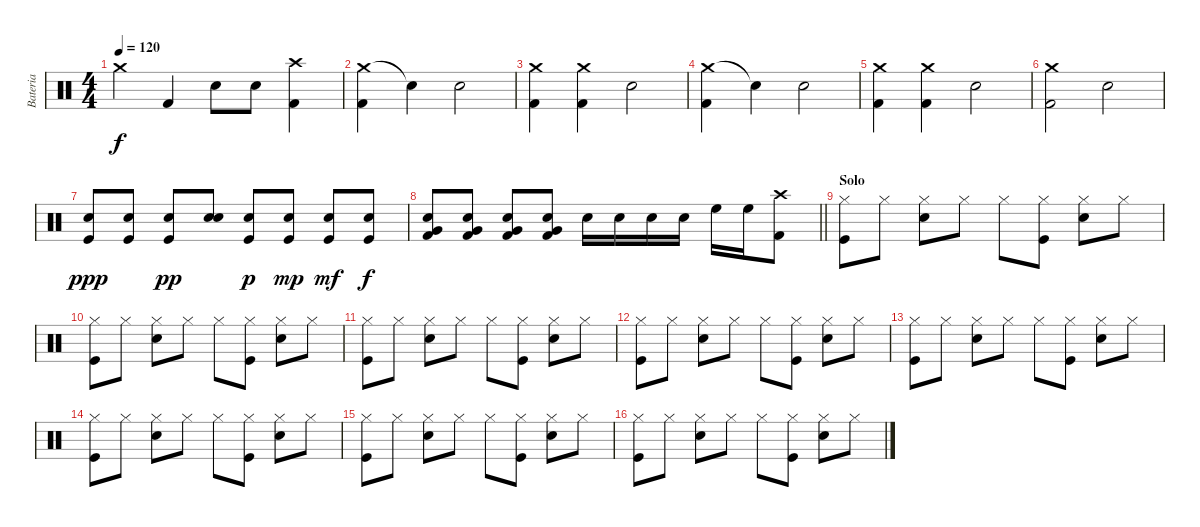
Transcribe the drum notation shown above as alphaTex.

\track ("Bateria" "Bateria") {instrument percussion}
\staff {score}
\articulation defaults
\ts (4 4)
\tempo 120
\clef neutral
\ks c "Crash medium (hit)".4{dy f} "Kick (hit) 2".4 "Snare (hit) 2".8 "Snare (hit) 2".8
("Crash high (hit)" "Kick (hit) 2").4 |
("Crash medium (hit)" "Kick (hit) 2").4 "Snare (hit)"{t}.4 "Snare (hit) 2".2 |
("Crash medium (hit)" "Kick (hit) 2").4 ("Crash medium (hit)" "Kick (hit) 2").4 "Snare (hit) 2".2 |
("Crash medium (hit)" "Kick (hit) 2").4 "Snare (hit)"{t}.4 "Snare (hit) 2".2 |
("Crash medium (hit)" "Kick (hit) 2").4 ("Crash medium (hit)" "Kick (hit) 2").4 "Snare (hit) 2".2 |
("Crash medium (hit)" "Kick (hit) 2").2 "Snare (hit) 2".2 |
("Kick (hit)" "Snare (hit) 2").8{dy ppp} ("Snare (hit) 2" "Kick (hit)").8 ("Snare (hit) 2" "Kick (hit)").8{dy pp} ("Snare (hit) 2" "Snare (hit) 2").8 ("Snare (hit) 2" "Kick (hit)").8{dy p} ("Snare (hit) 2" "Kick (hit)").8{dy mp} ("Snare (hit) 2" "Kick (hit)").8{dy mf} ("Snare (hit) 2" "Kick (hit)").8{dy f} |
\barLineRight lightlight
("Snare (hit) 2" "Very Low Tom (hit)" "Kick (hit) 2").8 ("Snare (hit) 2" "Very Low Tom (hit)" "Kick (hit) 2").8 ("Snare (hit) 2" "Very Low Tom (hit)" "Kick (hit) 2").8 ("Snare (hit) 2" "Very Low Tom (hit)" "Kick (hit) 2").8{volume 16} "Snare (hit) 2".16 "Snare (hit) 2".16 "Snare (hit) 2".16 "Snare (hit) 2".16 "High Floor Tom (hit)".16 "High Floor Tom (hit)".16 ("Crash high (hit)" "Kick (hit) 2").8 |
\section ("" "Solo")
("Hi-Hat (closed)" "Kick (hit)").8 "Hi-Hat (closed)".8 ("Hi-Hat (closed)" "Snare (hit) 2").8 "Hi-Hat (closed)".8 "Hi-Hat (closed)".8 ("Hi-Hat (closed)" "Kick (hit)").8 ("Hi-Hat (closed)" "Snare (hit) 2").8 "Hi-Hat (closed)".8 |
("Hi-Hat (closed)" "Kick (hit)").8 "Hi-Hat (closed)".8 ("Hi-Hat (closed)" "Snare (hit) 2").8 "Hi-Hat (closed)".8 "Hi-Hat (closed)".8 ("Hi-Hat (closed)" "Kick (hit)").8 ("Hi-Hat (closed)" "Snare (hit) 2").8 "Hi-Hat (closed)".8 |
("Hi-Hat (closed)" "Kick (hit)").8 "Hi-Hat (closed)".8 ("Hi-Hat (closed)" "Snare (hit) 2").8 "Hi-Hat (closed)".8 "Hi-Hat (closed)".8 ("Hi-Hat (closed)" "Kick (hit)").8 ("Hi-Hat (closed)" "Snare (hit) 2").8 "Hi-Hat (closed)".8 |
("Hi-Hat (closed)" "Kick (hit)").8 "Hi-Hat (closed)".8 ("Hi-Hat (closed)" "Snare (hit) 2").8 "Hi-Hat (closed)".8 "Hi-Hat (closed)".8 ("Hi-Hat (closed)" "Kick (hit)").8 ("Hi-Hat (closed)" "Snare (hit) 2").8 "Hi-Hat (closed)".8 |
("Hi-Hat (closed)" "Kick (hit)").8 "Hi-Hat (closed)".8 ("Hi-Hat (closed)" "Snare (hit) 2").8 "Hi-Hat (closed)".8 "Hi-Hat (closed)".8 ("Hi-Hat (closed)" "Kick (hit)").8 ("Hi-Hat (closed)" "Snare (hit) 2").8 "Hi-Hat (closed)".8 |
("Hi-Hat (closed)" "Kick (hit)").8 "Hi-Hat (closed)".8 ("Hi-Hat (closed)" "Snare (hit) 2").8 "Hi-Hat (closed)".8 "Hi-Hat (closed)".8 ("Hi-Hat (closed)" "Kick (hit)").8 ("Hi-Hat (closed)" "Snare (hit) 2").8 "Hi-Hat (closed)".8 |
("Hi-Hat (closed)" "Kick (hit)").8 "Hi-Hat (closed)".8 ("Hi-Hat (closed)" "Snare (hit) 2").8 "Hi-Hat (closed)".8 "Hi-Hat (closed)".8 ("Hi-Hat (closed)" "Kick (hit)").8 ("Hi-Hat (closed)" "Snare (hit) 2").8 "Hi-Hat (closed)".8 |
("Hi-Hat (closed)" "Kick (hit)").8 "Hi-Hat (closed)".8 ("Hi-Hat (closed)" "Snare (hit) 2").8 "Hi-Hat (closed)".8 "Hi-Hat (closed)".8 ("Hi-Hat (closed)" "Kick (hit)").8 ("Hi-Hat (closed)" "Snare (hit) 2").8 "Hi-Hat (closed)".8
